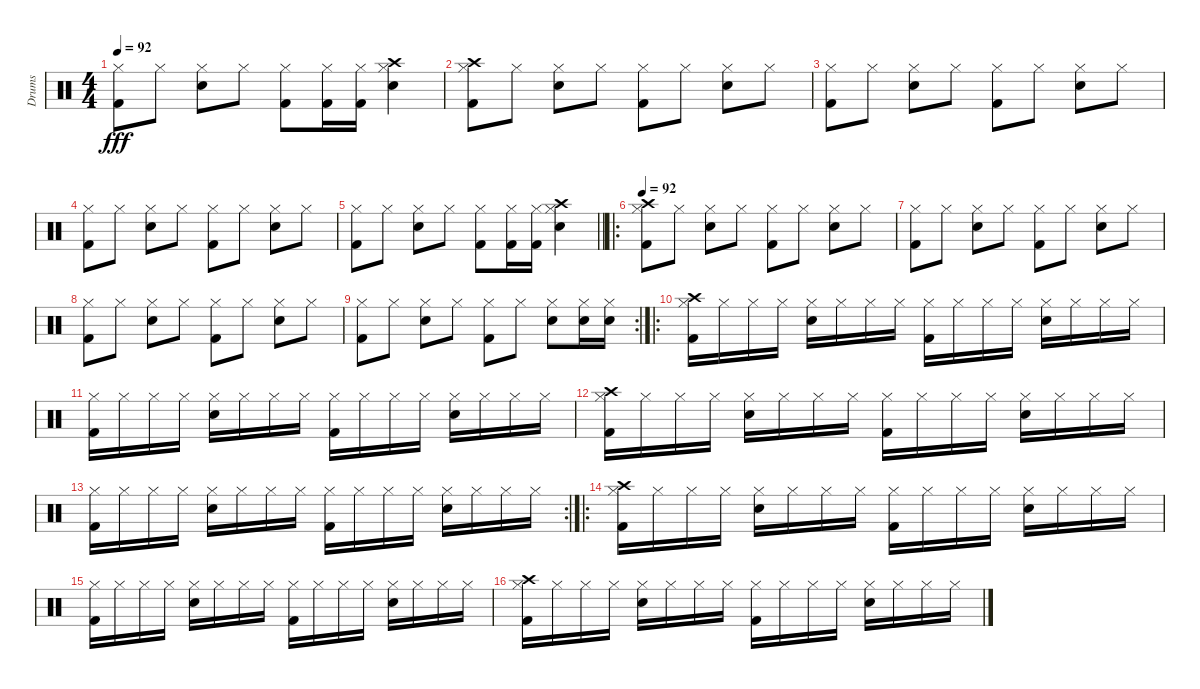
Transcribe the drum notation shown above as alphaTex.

\track ("Drums" "Drums") {instrument percussion}
\staff {score}
\articulation defaults
\ts (4 4)
\tempo 92
\clef neutral
\ks c
("Hi-Hat (closed)" "Kick (hit) 2").8{dy fff} "Hi-Hat (closed)".8 ("Hi-Hat (closed)" "Snare (hit) 2").8 "Hi-Hat (closed)".8 ("Hi-Hat (closed)" "Kick (hit) 2").8 ("Hi-Hat (closed)" "Kick (hit) 2").16 ("Hi-Hat (closed)" "Kick (hit) 2").16 ("Hi-Hat (closed)" "Snare (hit) 2" "Crash high (hit)").4 |
("Hi-Hat (closed)" "Kick (hit) 2" "Crash high (hit)").8 "Hi-Hat (closed)".8 ("Hi-Hat (closed)" "Snare (hit) 2").8 "Hi-Hat (closed)".8 ("Hi-Hat (closed)" "Kick (hit) 2").8 "Hi-Hat (closed)".8 ("Hi-Hat (closed)" "Snare (hit) 2").8 "Hi-Hat (closed)".8 |
("Hi-Hat (closed)" "Kick (hit) 2").8 "Hi-Hat (closed)".8 ("Hi-Hat (closed)" "Snare (hit) 2").8 "Hi-Hat (closed)".8 ("Hi-Hat (closed)" "Kick (hit) 2").8 "Hi-Hat (closed)".8 ("Hi-Hat (closed)" "Snare (hit) 2").8 "Hi-Hat (closed)".8 |
("Hi-Hat (closed)" "Kick (hit) 2").8 "Hi-Hat (closed)".8 ("Hi-Hat (closed)" "Snare (hit) 2").8 "Hi-Hat (closed)".8 ("Hi-Hat (closed)" "Kick (hit) 2").8 "Hi-Hat (closed)".8 ("Hi-Hat (closed)" "Snare (hit) 2").8 "Hi-Hat (closed)".8 |
\barLineRight lightlight
("Hi-Hat (closed)" "Kick (hit) 2").8 "Hi-Hat (closed)".8 ("Hi-Hat (closed)" "Snare (hit) 2").8 "Hi-Hat (closed)".8 ("Hi-Hat (closed)" "Kick (hit) 2").8 ("Hi-Hat (closed)" "Kick (hit) 2").16 ("Hi-Hat (closed)" "Kick (hit) 2").16 ("Hi-Hat (closed)" "Snare (hit) 2" "Crash high (hit)").4 |
\ro
\tempo 92
("Hi-Hat (closed)" "Kick (hit) 2" "Crash high (hit)").8 "Hi-Hat (closed)".8 ("Hi-Hat (closed)" "Snare (hit) 2").8 "Hi-Hat (closed)".8 ("Hi-Hat (closed)" "Kick (hit) 2").8 "Hi-Hat (closed)".8 ("Hi-Hat (closed)" "Snare (hit) 2").8 "Hi-Hat (closed)".8 |
("Hi-Hat (closed)" "Kick (hit) 2").8 "Hi-Hat (closed)".8 ("Hi-Hat (closed)" "Snare (hit) 2").8 "Hi-Hat (closed)".8 ("Hi-Hat (closed)" "Kick (hit) 2").8 "Hi-Hat (closed)".8 ("Hi-Hat (closed)" "Snare (hit) 2").8 "Hi-Hat (closed)".8 |
("Hi-Hat (closed)" "Kick (hit) 2").8 "Hi-Hat (closed)".8 ("Hi-Hat (closed)" "Snare (hit) 2").8 "Hi-Hat (closed)".8 ("Hi-Hat (closed)" "Kick (hit) 2").8 "Hi-Hat (closed)".8 ("Hi-Hat (closed)" "Snare (hit) 2").8 "Hi-Hat (closed)".8 |
\rc 2
("Hi-Hat (closed)" "Kick (hit) 2").8 "Hi-Hat (closed)".8 ("Hi-Hat (closed)" "Snare (hit) 2").8 "Hi-Hat (closed)".8 ("Hi-Hat (closed)" "Kick (hit) 2").8 "Hi-Hat (closed)".8 ("Hi-Hat (closed)" "Snare (hit) 2").8 ("Hi-Hat (closed)" "Snare (hit) 2").16 ("Hi-Hat (closed)" "Snare (hit) 2").16 |
\ro
("Hi-Hat (closed)" "Kick (hit) 2" "Crash high (hit)").16 "Hi-Hat (closed)".16 "Hi-Hat (closed)".16 "Hi-Hat (closed)".16 ("Hi-Hat (closed)" "Snare (hit) 2").16 "Hi-Hat (closed)".16 "Hi-Hat (closed)".16 "Hi-Hat (closed)".16 ("Hi-Hat (closed)" "Kick (hit) 2").16 "Hi-Hat (closed)".16 "Hi-Hat (closed)".16 "Hi-Hat (closed)".16 ("Hi-Hat (closed)" "Snare (hit) 2").16 "Hi-Hat (closed)".16 "Hi-Hat (closed)".16 "Hi-Hat (closed)".16 |
("Hi-Hat (closed)" "Kick (hit) 2").16 "Hi-Hat (closed)".16 "Hi-Hat (closed)".16 "Hi-Hat (closed)".16 ("Hi-Hat (closed)" "Snare (hit) 2").16 "Hi-Hat (closed)".16 "Hi-Hat (closed)".16 "Hi-Hat (closed)".16 ("Hi-Hat (closed)" "Kick (hit) 2").16 "Hi-Hat (closed)".16 "Hi-Hat (closed)".16 "Hi-Hat (closed)".16 ("Hi-Hat (closed)" "Snare (hit) 2").16 "Hi-Hat (closed)".16 "Hi-Hat (closed)".16 "Hi-Hat (closed)".16 |
("Hi-Hat (closed)" "Kick (hit) 2" "Crash high (hit)").16 "Hi-Hat (closed)".16 "Hi-Hat (closed)".16 "Hi-Hat (closed)".16 ("Hi-Hat (closed)" "Snare (hit) 2").16 "Hi-Hat (closed)".16 "Hi-Hat (closed)".16 "Hi-Hat (closed)".16 ("Hi-Hat (closed)" "Kick (hit) 2").16 "Hi-Hat (closed)".16 "Hi-Hat (closed)".16 "Hi-Hat (closed)".16 ("Hi-Hat (closed)" "Snare (hit) 2").16 "Hi-Hat (closed)".16 "Hi-Hat (closed)".16 "Hi-Hat (closed)".16 |
\rc 2
("Hi-Hat (closed)" "Kick (hit) 2").16 "Hi-Hat (closed)".16 "Hi-Hat (closed)".16 "Hi-Hat (closed)".16 ("Hi-Hat (closed)" "Snare (hit) 2").16 "Hi-Hat (closed)".16 "Hi-Hat (closed)".16 "Hi-Hat (closed)".16 ("Hi-Hat (closed)" "Kick (hit) 2").16 "Hi-Hat (closed)".16 "Hi-Hat (closed)".16 "Hi-Hat (closed)".16 ("Hi-Hat (closed)" "Snare (hit) 2").16 "Hi-Hat (closed)".16 "Hi-Hat (closed)".16 "Hi-Hat (closed)".16 |
\ro
("Hi-Hat (closed)" "Kick (hit) 2" "Crash high (hit)").16 "Hi-Hat (closed)".16 "Hi-Hat (closed)".16 "Hi-Hat (closed)".16 ("Hi-Hat (closed)" "Snare (hit) 2").16 "Hi-Hat (closed)".16 "Hi-Hat (closed)".16 "Hi-Hat (closed)".16 ("Hi-Hat (closed)" "Kick (hit) 2").16 "Hi-Hat (closed)".16 "Hi-Hat (closed)".16 "Hi-Hat (closed)".16 ("Hi-Hat (closed)" "Snare (hit) 2").16 "Hi-Hat (closed)".16 "Hi-Hat (closed)".16 "Hi-Hat (closed)".16 |
("Hi-Hat (closed)" "Kick (hit) 2").16 "Hi-Hat (closed)".16 "Hi-Hat (closed)".16 "Hi-Hat (closed)".16 ("Hi-Hat (closed)" "Snare (hit) 2").16 "Hi-Hat (closed)".16 "Hi-Hat (closed)".16 "Hi-Hat (closed)".16 ("Hi-Hat (closed)" "Kick (hit) 2").16 "Hi-Hat (closed)".16 "Hi-Hat (closed)".16 "Hi-Hat (closed)".16 ("Hi-Hat (closed)" "Snare (hit) 2").16 "Hi-Hat (closed)".16 "Hi-Hat (closed)".16 "Hi-Hat (closed)".16 |
("Hi-Hat (closed)" "Kick (hit) 2" "Crash high (hit)").16 "Hi-Hat (closed)".16 "Hi-Hat (closed)".16 "Hi-Hat (closed)".16 ("Hi-Hat (closed)" "Snare (hit) 2").16 "Hi-Hat (closed)".16 "Hi-Hat (closed)".16 "Hi-Hat (closed)".16 ("Hi-Hat (closed)" "Kick (hit) 2").16 "Hi-Hat (closed)".16 "Hi-Hat (closed)".16 "Hi-Hat (closed)".16 ("Hi-Hat (closed)" "Snare (hit) 2").16 "Hi-Hat (closed)".16 "Hi-Hat (closed)".16 "Hi-Hat (closed)".16
